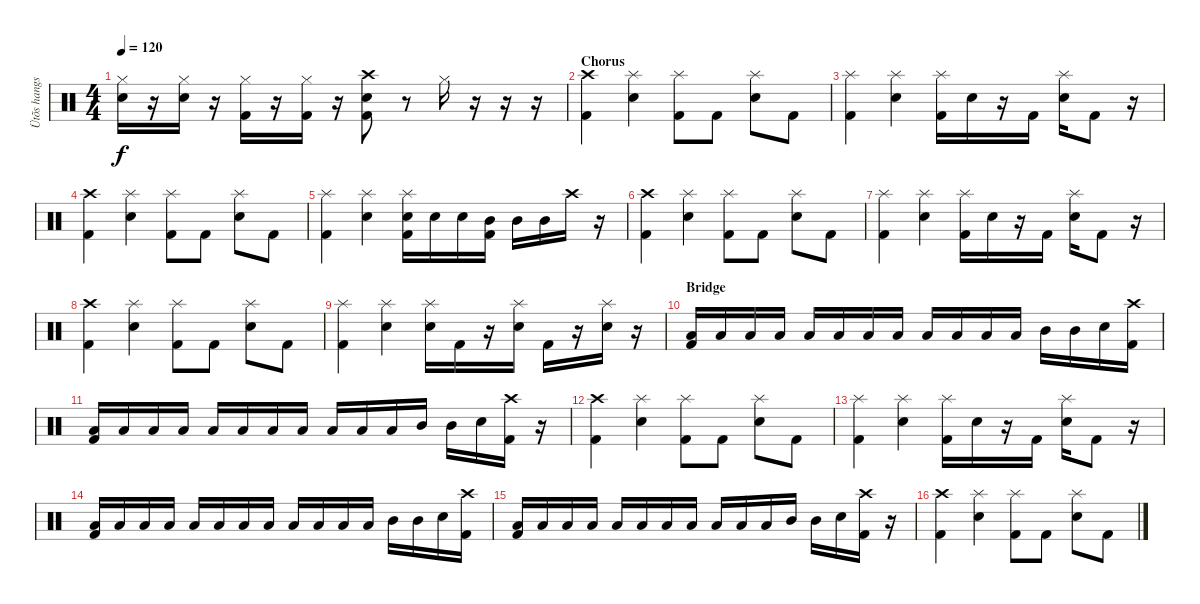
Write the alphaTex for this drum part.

\track ("Ütõs hangszer" "Ütõs hangs") {instrument percussion}
\staff {score}
\articulation defaults
\ts (4 4)
\tempo 120
\clef neutral
\ks c
("Hi-Hat (closed)" "Snare (hit) 2").16{dy f} r.16 ("Hi-Hat (closed)" "Snare (hit) 2").16 r.16 ("Hi-Hat (closed)" "Kick (hit) 2").16 r.16 ("Hi-Hat (closed)" "Kick (hit) 2").16 r.16 ("Crash high (hit)" "Snare (hit) 2" "Kick (hit) 2").8 r.8 "Hi-Hat (closed)".16 r.16 r.16 r.16 |
\section ("" "Chorus")
("Crash high (hit)" "Kick (hit) 2").4 ("Splash (hit)" "Snare (hit) 2").4 ("Splash (hit)" "Kick (hit) 2").8 "Kick (hit) 2".8 ("Splash (hit)" "Snare (hit) 2").8 "Kick (hit) 2".8 |
("Splash (hit)" "Kick (hit) 2").4 ("Splash (hit)" "Snare (hit) 2").4 ("Splash (hit)" "Kick (hit) 2").16 "Snare (hit) 2".16 r.16 "Kick (hit) 2".16 ("Splash (hit)" "Snare (hit) 2").16 "Kick (hit) 2".8 r.16 |
("Crash high (hit)" "Kick (hit) 2").4 ("Splash (hit)" "Snare (hit) 2").4 ("Splash (hit)" "Kick (hit) 2").8 "Kick (hit) 2".8 ("Splash (hit)" "Snare (hit) 2").8 "Kick (hit) 2".8 |
("Splash (hit)" "Kick (hit) 2").4 ("Splash (hit)" "Snare (hit) 2").4 ("Splash (hit)" "Snare (hit) 2" "Kick (hit) 2").16 "Snare (hit) 2".16 "Snare (hit) 2".16 ("Mid Tom (hit)" "Kick (hit) 2").16 "Mid Tom (hit)".16 "Mid Tom (hit)".16 "Crash high (hit)".16 r.16 |
("Crash high (hit)" "Kick (hit) 2").4 ("Splash (hit)" "Snare (hit) 2").4 ("Splash (hit)" "Kick (hit) 2").8 "Kick (hit) 2".8 ("Splash (hit)" "Snare (hit) 2").8 "Kick (hit) 2".8 |
("Splash (hit)" "Kick (hit) 2").4 ("Splash (hit)" "Snare (hit) 2").4 ("Splash (hit)" "Kick (hit) 2").16 "Snare (hit) 2".16 r.16 "Kick (hit) 2".16 ("Splash (hit)" "Snare (hit) 2").16 "Kick (hit) 2".8 r.16 |
("Crash high (hit)" "Kick (hit) 2").4 ("Splash (hit)" "Snare (hit) 2").4 ("Splash (hit)" "Kick (hit) 2").8 "Kick (hit) 2".8 ("Splash (hit)" "Snare (hit) 2").8 "Kick (hit) 2".8 |
("Splash (hit)" "Kick (hit) 2").4 ("Splash (hit)" "Snare (hit) 2").4 ("Splash (hit)" "Snare (hit) 2").16 "Kick (hit) 2".16 r.16 ("Splash (hit)" "Snare (hit) 2").16 "Kick (hit) 2".16 r.16 ("Splash (hit)" "Snare (hit) 2").16 r.16 |
\section ("" "Bridge")
("Low Tom (hit)" "Kick (hit) 2").16 "Low Tom (hit)".16 "Low Tom (hit)".16 "Low Tom (hit)".16 "Low Tom (hit)".16 "Low Tom (hit)".16 "Low Tom (hit)".16 "Low Tom (hit)".16 "Low Tom (hit)".16 "Low Tom (hit)".16 "Low Tom (hit)".16 "Low Tom (hit)".16 "Mid Tom (hit)".16 "Mid Tom (hit)".16 "Snare (hit) 2".16 ("Crash high (hit)" "Kick (hit) 2").16 |
("Low Tom (hit)" "Kick (hit) 2").16 "Low Tom (hit)".16 "Low Tom (hit)".16 "Low Tom (hit)".16 "Low Tom (hit)".16 "Low Tom (hit)".16 "Low Tom (hit)".16 "Low Tom (hit)".16 "Low Tom (hit)".16 "Low Tom (hit)".16 "Low Tom (hit)".16 "Mid Tom (hit)".16 "Mid Tom (hit)".16 "Snare (hit) 2".16 ("Crash high (hit)" "Kick (hit) 2").16 r.16 |
("Crash high (hit)" "Kick (hit) 2").4 ("Splash (hit)" "Snare (hit) 2").4 ("Splash (hit)" "Kick (hit) 2").8 "Kick (hit) 2".8 ("Splash (hit)" "Snare (hit) 2").8 "Kick (hit) 2".8 |
("Splash (hit)" "Kick (hit) 2").4 ("Splash (hit)" "Snare (hit) 2").4 ("Splash (hit)" "Kick (hit) 2").16 "Snare (hit) 2".16 r.16 "Kick (hit) 2".16 ("Splash (hit)" "Snare (hit) 2").16 "Kick (hit) 2".8 r.16 |
("Low Tom (hit)" "Kick (hit) 2").16 "Low Tom (hit)".16 "Low Tom (hit)".16 "Low Tom (hit)".16 "Low Tom (hit)".16 "Low Tom (hit)".16 "Low Tom (hit)".16 "Low Tom (hit)".16 "Low Tom (hit)".16 "Low Tom (hit)".16 "Low Tom (hit)".16 "Low Tom (hit)".16 "Mid Tom (hit)".16 "Mid Tom (hit)".16 "Snare (hit) 2".16 ("Crash high (hit)" "Kick (hit) 2").16 |
("Low Tom (hit)" "Kick (hit) 2").16 "Low Tom (hit)".16 "Low Tom (hit)".16 "Low Tom (hit)".16 "Low Tom (hit)".16 "Low Tom (hit)".16 "Low Tom (hit)".16 "Low Tom (hit)".16 "Low Tom (hit)".16 "Low Tom (hit)".16 "Low Tom (hit)".16 "Mid Tom (hit)".16 "Mid Tom (hit)".16 "Snare (hit) 2".16 ("Crash high (hit)" "Kick (hit) 2").16 r.16 |
("Crash high (hit)" "Kick (hit) 2").4 ("Splash (hit)" "Snare (hit) 2").4 ("Splash (hit)" "Kick (hit) 2").8 "Kick (hit) 2".8 ("Splash (hit)" "Snare (hit) 2").8 "Kick (hit) 2".8
